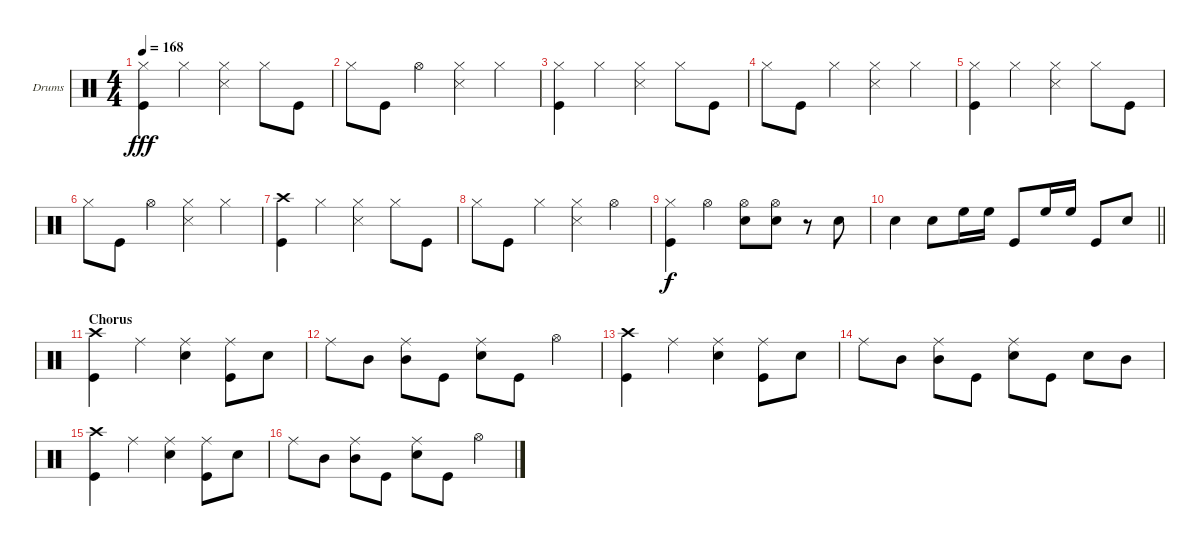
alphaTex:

\bracketExtendMode groupsimilarinstruments
\firstSystemTrackNameOrientation horizontal
\otherSystemsTrackNameOrientation horizontal
\track ("Drumkit" "Drums") {solo instrument percussion}
\staff {score}
\articulation defaults
\ts (4 4)
\tempo 168
\clef neutral
\ks c
("Hi-Hat (closed)" "Kick (hit)").4{dy fff} "Hi-Hat (closed)".4 ("Hi-Hat (closed)" "Snare (side stick) 3").4 "Hi-Hat (closed)".8 "Kick (hit)".8 |
"Hi-Hat (closed)".8 "Kick (hit)".8 "Hi-Hat (open)".4 ("Hi-Hat (closed)" "Snare (side stick) 3").4 "Hi-Hat (closed)".4 |
("Hi-Hat (closed)" "Kick (hit)").4 "Hi-Hat (closed)".4 ("Hi-Hat (closed)" "Snare (side stick) 3").4 "Hi-Hat (closed)".8 "Kick (hit)".8 |
"Hi-Hat (closed)".8 "Kick (hit)".8 "Hi-Hat (closed)".4 ("Hi-Hat (closed)" "Snare (side stick) 3").4 "Hi-Hat (closed)".4 |
("Hi-Hat (closed)" "Kick (hit)").4 "Hi-Hat (closed)".4 ("Hi-Hat (closed)" "Snare (side stick) 3").4 "Hi-Hat (closed)".8 "Kick (hit)".8 |
"Hi-Hat (closed)".8 "Kick (hit)".8 "Hi-Hat (open)".4 ("Hi-Hat (closed)" "Snare (side stick) 3").4 "Hi-Hat (closed)".4 |
("Crash high (hit)" "Kick (hit)").4 "Hi-Hat (closed)".4 ("Hi-Hat (closed)" "Snare (side stick) 3").4 "Hi-Hat (closed)".8 "Kick (hit)".8 |
"Hi-Hat (closed)".8 "Kick (hit)".8 "Hi-Hat (closed)".4 ("Hi-Hat (closed)" "Snare (side stick) 3").4 "Hi-Hat (open)".4 |
("Hi-Hat (closed)" "Kick (hit)").4{dy f} "Hi-Hat (open)".4 ("Hi-Hat (open)" "Snare (hit) 2").8 ("Hi-Hat (open)" "Snare (hit) 2").8 r.8 "Snare (hit) 2".8 |
\barLineRight lightlight "Snare (hit) 2".4 "Snare (hit) 2".8 "High Floor Tom (hit)".16 "High Floor Tom (hit)".16 "Kick (hit)".8 "High Floor Tom (hit)".16 "High Floor Tom (hit)".16 "Kick (hit)".8 "Snare (hit) 2".8
|
\section ("" "Chorus")
("Crash high (hit)" "Kick (hit)").4 "Ride (middle)".4 ("Ride (middle)" "Snare (hit) 2").4 ("Ride (middle)" "Kick (hit)").8 "Snare (hit) 2".8 |
"Ride (middle)".8 "Mid Tom (hit)".8 ("Ride (middle)" "Mid Tom (hit)").8 "Kick (hit)".8 ("Ride (middle)" "Snare (hit) 2").8 "Kick (hit)".8 "Hi-Hat (open)".4 |
("Crash high (hit)" "Kick (hit)").4 "Ride (middle)".4 ("Ride (middle)" "Snare (hit) 2").4 ("Ride (middle)" "Kick (hit)").8 "Snare (hit) 2".8 |
"Ride (middle)".8 "Mid Tom (hit)".8 ("Ride (middle)" "Mid Tom (hit)").8 "Kick (hit)".8 ("Ride (middle)" "Snare (hit) 2").8 "Kick (hit)".8 "Snare (hit) 2".8 "Mid Tom (hit)".8 |
("Crash high (hit)" "Kick (hit)").4 "Ride (middle)".4 ("Ride (middle)" "Snare (hit) 2").4 ("Ride (middle)" "Kick (hit)").8 "Snare (hit) 2".8 |
"Ride (middle)".8 "Mid Tom (hit)".8 ("Ride (middle)" "Mid Tom (hit)").8 "Kick (hit)".8 ("Ride (middle)" "Snare (hit) 2").8 "Kick (hit)".8 "Hi-Hat (open)".4
